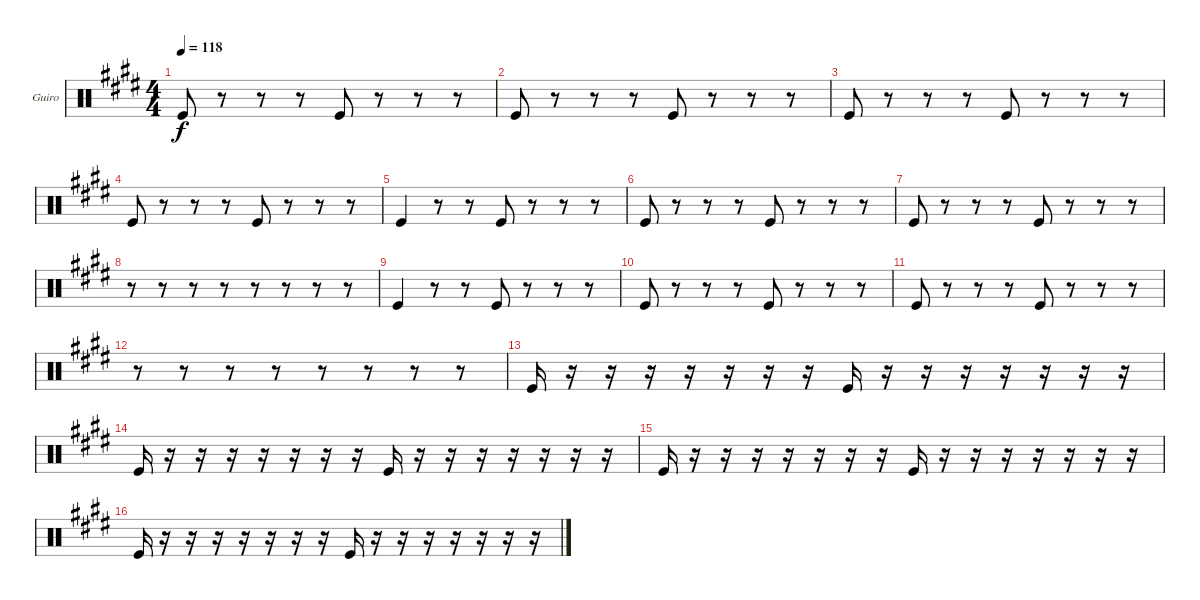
\bracketExtendMode groupsimilarinstruments
\firstSystemTrackNameOrientation horizontal
\otherSystemsTrackNameOrientation horizontal
\track ("Guiro" "Guiro") {instrument percussion}
\staff {score}
\articulation defaults
\ts (4 4)
\tempo 118
\clef neutral
\ks e "Kick (hit)".8{dy f}
r.8 r.8 r.8 "Kick (hit)".8 r.8 r.8 r.8 |
"Kick (hit)".8 r.8 r.8 r.8 "Kick (hit)".8 r.8 r.8 r.8 |
"Kick (hit)".8 r.8 r.8 r.8 "Kick (hit)".8 r.8 r.8 r.8 |
"Kick (hit)".8 r.8 r.8 r.8 "Kick (hit)".8 r.8 r.8 r.8 |
"Kick (hit)".4 r.8 r.8 "Kick (hit)".8 r.8 r.8 r.8 |
"Kick (hit)".8 r.8 r.8 r.8 "Kick (hit)".8 r.8 r.8 r.8 |
"Kick (hit)".8 r.8 r.8 r.8 "Kick (hit)".8 r.8 r.8 r.8 |
r.8 r.8 r.8 r.8 r.8 r.8 r.8 r.8 |
"Kick (hit)".4 r.8 r.8 "Kick (hit)".8 r.8 r.8 r.8 |
"Kick (hit)".8 r.8 r.8 r.8 "Kick (hit)".8 r.8 r.8 r.8 |
"Kick (hit)".8 r.8 r.8 r.8 "Kick (hit)".8 r.8 r.8 r.8 |
r.8 r.8 r.8 r.8 r.8 r.8 r.8 r.8 |
"Kick (hit)".16 r.16 r.16 r.16 r.16 r.16 r.16 r.16 "Kick (hit)".16 r.16 r.16 r.16 r.16 r.16 r.16 r.16 |
"Kick (hit)".16 r.16 r.16 r.16 r.16 r.16 r.16 r.16 "Kick (hit)".16 r.16 r.16 r.16 r.16 r.16 r.16 r.16 |
"Kick (hit)".16 r.16 r.16 r.16 r.16 r.16 r.16 r.16 "Kick (hit)".16 r.16 r.16 r.16 r.16 r.16 r.16 r.16 |
"Kick (hit)".16 r.16 r.16 r.16 r.16 r.16 r.16 r.16 "Kick (hit)".16 r.16 r.16 r.16 r.16 r.16 r.16 r.16
